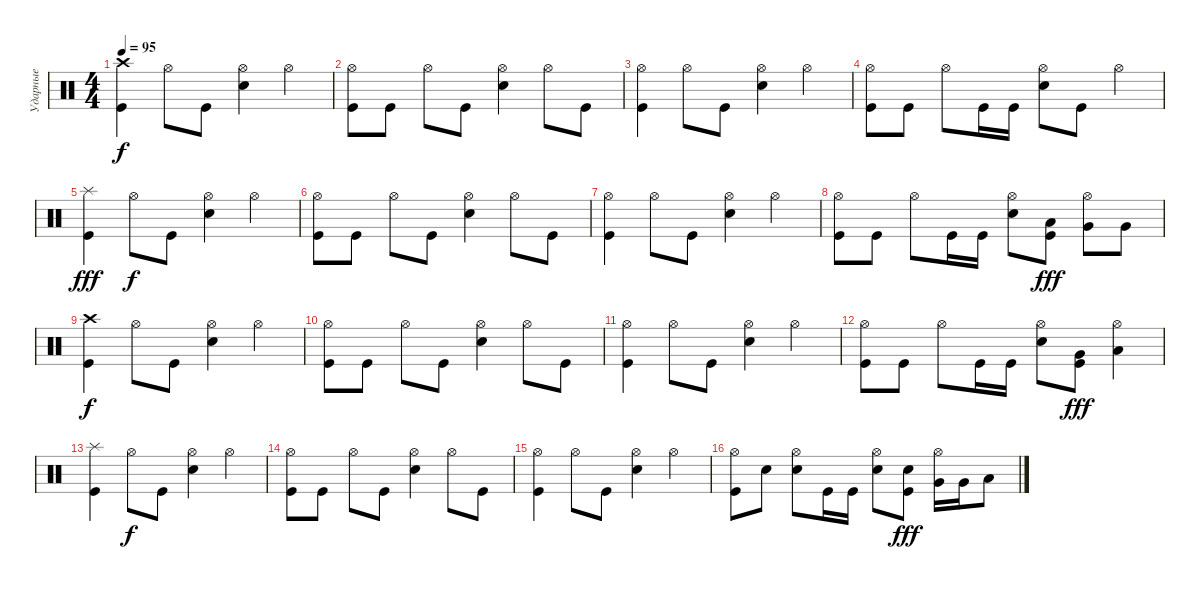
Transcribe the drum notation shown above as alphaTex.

\track ("Ударные" "Ударные") {instrument percussion}
\staff {score}
\articulation defaults
\ts (4 4)
\tempo 95
\clef neutral
\ks c
("Crash high (hit)" "Kick (hit)").4{dy f} "Hi-Hat (open)".8 "Kick (hit)".8 ("Hi-Hat (open)" "Snare (hit) 2").4 "Hi-Hat (open)".4 |
("Hi-Hat (open)" "Kick (hit)").8 "Kick (hit)".8 "Hi-Hat (open)".8 "Kick (hit)".8 ("Hi-Hat (open)" "Snare (hit) 2").4 "Hi-Hat (open)".8 "Kick (hit)".8 |
("Hi-Hat (open)" "Kick (hit)").4 "Hi-Hat (open)".8 "Kick (hit)".8 ("Hi-Hat (open)" "Snare (hit) 2").4 "Hi-Hat (open)".4 |
("Hi-Hat (open)" "Kick (hit)").8 "Kick (hit)".8 "Hi-Hat (open)".8 "Kick (hit)".16 "Kick (hit)".16 ("Hi-Hat (open)" "Snare (hit) 2").8 "Kick (hit)".8 "Hi-Hat (open)".4 |
("Splash (hit)" "Kick (hit)").4{dy fff} "Hi-Hat (open)".8{dy f} "Kick (hit)".8 ("Hi-Hat (open)" "Snare (hit) 2").4 "Hi-Hat (open)".4 |
("Hi-Hat (open)" "Kick (hit)").8 "Kick (hit)".8 "Hi-Hat (open)".8 "Kick (hit)".8 ("Hi-Hat (open)" "Snare (hit) 2").4 "Hi-Hat (open)".8 "Kick (hit)".8 |
("Hi-Hat (open)" "Kick (hit)").4 "Hi-Hat (open)".8 "Kick (hit)".8 ("Hi-Hat (open)" "Snare (hit) 2").4 "Hi-Hat (open)".4 |
("Hi-Hat (open)" "Kick (hit)").8 "Kick (hit)".8 "Hi-Hat (open)".8 "Kick (hit)".16 "Kick (hit)".16 ("Hi-Hat (open)" "Snare (hit) 2").8 ("Low Tom (hit)" "Kick (hit)").8{dy fff} ("Hi-Hat (open)" "Very Low Tom (hit)").8 "Very Low Tom (hit)".8 |
("Crash high (hit)" "Kick (hit)").4{dy f} "Hi-Hat (open)".8 "Kick (hit)".8 ("Hi-Hat (open)" "Snare (hit) 2").4 "Hi-Hat (open)".4 |
("Hi-Hat (open)" "Kick (hit)").8 "Kick (hit)".8 "Hi-Hat (open)".8 "Kick (hit)".8 ("Hi-Hat (open)" "Snare (hit) 2").4 "Hi-Hat (open)".8 "Kick (hit)".8 |
("Hi-Hat (open)" "Kick (hit)").4 "Hi-Hat (open)".8 "Kick (hit)".8 ("Hi-Hat (open)" "Snare (hit) 2").4 "Hi-Hat (open)".4 |
("Hi-Hat (open)" "Kick (hit)").8 "Kick (hit)".8 "Hi-Hat (open)".8 "Kick (hit)".16 "Kick (hit)".16 ("Hi-Hat (open)" "Snare (hit) 2").8 ("Very Low Tom (hit)" "Kick (hit)").8{dy fff} ("Hi-Hat (open)" "Low Floor Tom (hit)").4 |
("Splash (hit)" "Kick (hit)").4 "Hi-Hat (open)".8{dy f} "Kick (hit)".8 ("Hi-Hat (open)" "Snare (hit) 2").4 "Hi-Hat (open)".4 |
("Hi-Hat (open)" "Kick (hit)").8 "Kick (hit)".8 "Hi-Hat (open)".8 "Kick (hit)".8 ("Hi-Hat (open)" "Snare (hit) 2").4 "Hi-Hat (open)".8 "Kick (hit)".8 |
("Hi-Hat (open)" "Kick (hit)").4 "Hi-Hat (open)".8 "Kick (hit)".8 ("Hi-Hat (open)" "Snare (hit) 2").4 "Hi-Hat (open)".4 |
("Hi-Hat (open)" "Kick (hit)").8 "Snare (hit) 2".8 ("Hi-Hat (open)" "Snare (hit) 2").8 "Kick (hit)".16 "Kick (hit)".16 ("Hi-Hat (open)" "Snare (hit) 2").8 ("Snare (hit) 2" "Kick (hit)").8{dy fff} ("Hi-Hat (open)" "Very Low Tom (hit)").16 "Very Low Tom (hit)".16 "Low Floor Tom (hit)".8
